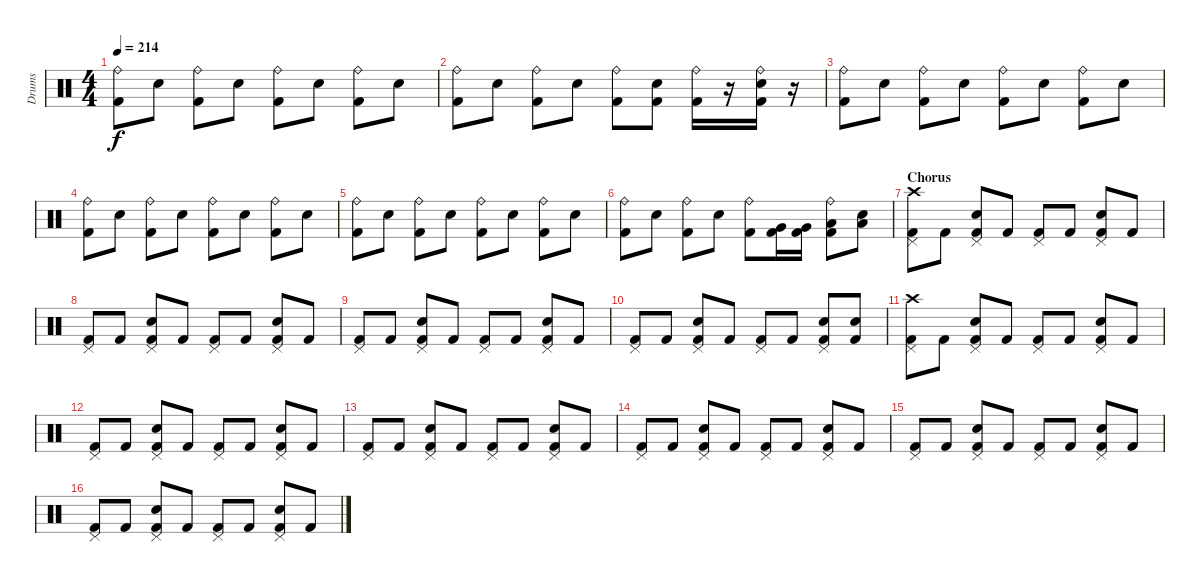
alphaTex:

\track ("Drums" "Drums") {instrument percussion}
\staff {score}
\articulation defaults
\ts (4 4)
\tempo 214
\clef neutral
\ks c
("Ride (bell)" "Kick (hit) 2").8{dy f} "Electric Snare (hit)".8 ("Ride (bell)" "Kick (hit) 2").8 "Electric Snare (hit)".8 ("Ride (bell)" "Kick (hit) 2").8 "Electric Snare (hit)".8 ("Ride (bell)" "Kick (hit) 2").8 "Electric Snare (hit)".8 |
("Ride (bell)" "Kick (hit) 2").8 "Electric Snare (hit)".8 ("Ride (bell)" "Kick (hit) 2").8 "Electric Snare (hit)".8 ("Ride (bell)" "Kick (hit) 2").8 ("Electric Snare (hit)" "Kick (hit) 2").8 ("Ride (bell)" "Kick (hit) 2").16 r.16 ("Ride (bell)" "Electric Snare (hit)" "Kick (hit) 2").16 r.16 |
("Ride (bell)" "Kick (hit) 2").8 "Electric Snare (hit)".8 ("Ride (bell)" "Kick (hit) 2").8 "Electric Snare (hit)".8 ("Ride (bell)" "Kick (hit) 2").8 "Electric Snare (hit)".8 ("Ride (bell)" "Kick (hit) 2").8 "Electric Snare (hit)".8 |
("Ride (bell)" "Kick (hit) 2").8 "Electric Snare (hit)".8 ("Ride (bell)" "Kick (hit) 2").8 "Electric Snare (hit)".8 ("Ride (bell)" "Kick (hit) 2").8 "Electric Snare (hit)".8 ("Ride (bell)" "Kick (hit) 2").8 "Electric Snare (hit)".8 |
("Ride (bell)" "Kick (hit) 2").8 "Electric Snare (hit)".8 ("Ride (bell)" "Kick (hit) 2").8 "Electric Snare (hit)".8 ("Ride (bell)" "Kick (hit) 2").8 "Electric Snare (hit)".8 ("Ride (bell)" "Kick (hit) 2").8 "Electric Snare (hit)".8 |
("Ride (bell)" "Kick (hit) 2").8 "Electric Snare (hit)".8 ("Ride (bell)" "Kick (hit) 2").8 "Electric Snare (hit)".8 ("Ride (bell)" "Kick (hit) 2").8 ("Very Low Tom (hit)" "Kick (hit) 2").16 ("Very Low Tom (hit)" "Kick (hit) 2").16 ("Ride (bell)" "Low Floor Tom (hit)" "Kick (hit) 2").8 ("Low Floor Tom (hit)" "Electric Snare (hit)").8 |
\section ("" "Chorus")
("Pedal Hi-Hat (hit)" "Crash high (hit)" "Kick (hit) 2").8 "Kick (hit) 2".8 ("Pedal Hi-Hat (hit)" "Electric Snare (hit)" "Kick (hit) 2").8 "Kick (hit) 2".8 ("Pedal Hi-Hat (hit)" "Kick (hit) 2").8 "Kick (hit) 2".8 ("Pedal Hi-Hat (hit)" "Electric Snare (hit)" "Kick (hit) 2").8 "Kick (hit) 2".8 |
("Pedal Hi-Hat (hit)" "Kick (hit) 2").8 "Kick (hit) 2".8 ("Pedal Hi-Hat (hit)" "Electric Snare (hit)" "Kick (hit) 2").8 "Kick (hit) 2".8 ("Pedal Hi-Hat (hit)" "Kick (hit) 2").8 "Kick (hit) 2".8 ("Pedal Hi-Hat (hit)" "Electric Snare (hit)" "Kick (hit) 2").8 "Kick (hit) 2".8 |
("Pedal Hi-Hat (hit)" "Kick (hit) 2").8 "Kick (hit) 2".8 ("Pedal Hi-Hat (hit)" "Electric Snare (hit)" "Kick (hit) 2").8 "Kick (hit) 2".8 ("Pedal Hi-Hat (hit)" "Kick (hit) 2").8 "Kick (hit) 2".8 ("Pedal Hi-Hat (hit)" "Electric Snare (hit)" "Kick (hit) 2").8 "Kick (hit) 2".8 |
("Pedal Hi-Hat (hit)" "Kick (hit) 2").8 "Kick (hit) 2".8 ("Pedal Hi-Hat (hit)" "Electric Snare (hit)" "Kick (hit) 2").8 "Kick (hit) 2".8 ("Pedal Hi-Hat (hit)" "Kick (hit) 2").8 "Kick (hit) 2".8 ("Pedal Hi-Hat (hit)" "Electric Snare (hit)" "Kick (hit) 2").8 ("Electric Snare (hit)" "Kick (hit) 2").8 |
("Pedal Hi-Hat (hit)" "Crash high (hit)" "Kick (hit) 2").8 "Kick (hit) 2".8 ("Pedal Hi-Hat (hit)" "Electric Snare (hit)" "Kick (hit) 2").8 "Kick (hit) 2".8 ("Pedal Hi-Hat (hit)" "Kick (hit) 2").8 "Kick (hit) 2".8 ("Pedal Hi-Hat (hit)" "Electric Snare (hit)" "Kick (hit) 2").8 "Kick (hit) 2".8 |
("Pedal Hi-Hat (hit)" "Kick (hit) 2").8 "Kick (hit) 2".8 ("Pedal Hi-Hat (hit)" "Electric Snare (hit)" "Kick (hit) 2").8 "Kick (hit) 2".8 ("Pedal Hi-Hat (hit)" "Kick (hit) 2").8 "Kick (hit) 2".8 ("Pedal Hi-Hat (hit)" "Electric Snare (hit)" "Kick (hit) 2").8 "Kick (hit) 2".8 |
("Pedal Hi-Hat (hit)" "Kick (hit) 2").8 "Kick (hit) 2".8 ("Pedal Hi-Hat (hit)" "Electric Snare (hit)" "Kick (hit) 2").8 "Kick (hit) 2".8 ("Pedal Hi-Hat (hit)" "Kick (hit) 2").8 "Kick (hit) 2".8 ("Pedal Hi-Hat (hit)" "Electric Snare (hit)" "Kick (hit) 2").8 "Kick (hit) 2".8 |
("Pedal Hi-Hat (hit)" "Kick (hit) 2").8 "Kick (hit) 2".8 ("Pedal Hi-Hat (hit)" "Electric Snare (hit)" "Kick (hit) 2").8 "Kick (hit) 2".8 ("Pedal Hi-Hat (hit)" "Kick (hit) 2").8 "Kick (hit) 2".8 ("Pedal Hi-Hat (hit)" "Electric Snare (hit)" "Kick (hit) 2").8 "Kick (hit) 2".8 |
("Pedal Hi-Hat (hit)" "Kick (hit) 2").8 "Kick (hit) 2".8 ("Pedal Hi-Hat (hit)" "Electric Snare (hit)" "Kick (hit) 2").8 "Kick (hit) 2".8 ("Pedal Hi-Hat (hit)" "Kick (hit) 2").8 "Kick (hit) 2".8 ("Pedal Hi-Hat (hit)" "Electric Snare (hit)" "Kick (hit) 2").8 "Kick (hit) 2".8 |
("Pedal Hi-Hat (hit)" "Kick (hit) 2").8 "Kick (hit) 2".8 ("Pedal Hi-Hat (hit)" "Electric Snare (hit)" "Kick (hit) 2").8 "Kick (hit) 2".8 ("Pedal Hi-Hat (hit)" "Kick (hit) 2").8 "Kick (hit) 2".8 ("Pedal Hi-Hat (hit)" "Electric Snare (hit)" "Kick (hit) 2").8 "Kick (hit) 2".8
